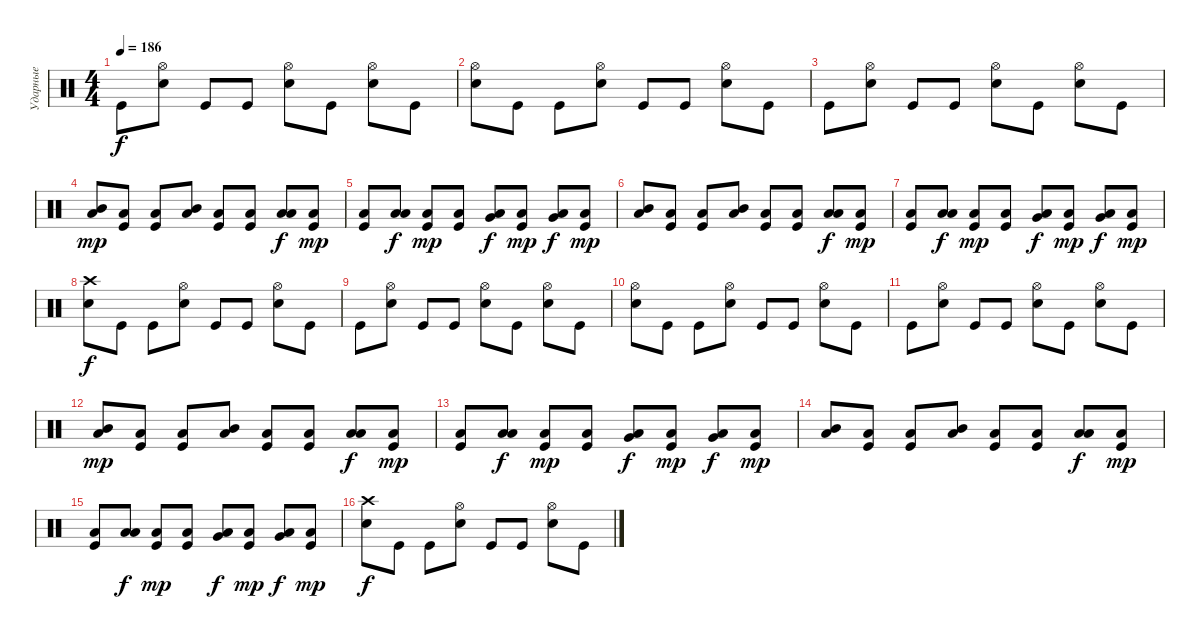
\track ("Ударные" "Ударные") {instrument percussion}
\staff {score}
\articulation defaults
\ts (4 4)
\tempo 186
\clef neutral
\ks aminor "Kick (hit)".8{dy f}
("Snare (hit) 2" "Hi-Hat (open)").8 "Kick (hit)".8 "Kick (hit)".8 ("Snare (hit) 2" "Hi-Hat (open)").8 "Kick (hit)".8 ("Snare (hit) 2" "Hi-Hat (open)").8 "Kick (hit)".8 |
("Snare (hit) 2" "Hi-Hat (open)").8 "Kick (hit)".8 "Kick (hit)".8 ("Snare (hit) 2" "Hi-Hat (open)").8 "Kick (hit)".8 "Kick (hit)".8 ("Snare (hit) 2" "Hi-Hat (open)").8 "Kick (hit)".8 |
"Kick (hit)".8 ("Snare (hit) 2" "Hi-Hat (open)").8 "Kick (hit)".8 "Kick (hit)".8 ("Snare (hit) 2" "Hi-Hat (open)").8 "Kick (hit)".8 ("Snare (hit) 2" "Hi-Hat (open)").8 "Kick (hit)".8 |
("Mid Tom (hit)" "Low Floor Tom (hit)").8{bd 240 dy mp} ("Kick (hit)" "Low Floor Tom (hit)").8 ("Kick (hit)" "Low Floor Tom (hit)").8 ("Mid Tom (hit)" "Low Floor Tom (hit)").8{bd 240} ("Kick (hit)" "Low Floor Tom (hit)").8 ("Kick (hit)" "Low Floor Tom (hit)").8 ("Low Tom (hit)" "Low Floor Tom (hit)").8{bd 240 dy f} ("Kick (hit)" "Low Floor Tom (hit)").8{dy mp} |
("Kick (hit)" "Low Floor Tom (hit)").8 ("Low Tom (hit)" "Low Floor Tom (hit)").8{bd 240 dy f} ("Kick (hit)" "Low Floor Tom (hit)").8{dy mp} ("Kick (hit)" "Low Floor Tom (hit)").8 ("Very Low Tom (hit)" "Low Floor Tom (hit)").8{bd 240 dy f} ("Kick (hit)" "Low Floor Tom (hit)").8{dy mp} ("Very Low Tom (hit)" "Low Floor Tom (hit)").8{bd 480 dy f} ("Kick (hit)" "Low Floor Tom (hit)").8{dy mp} |
("Mid Tom (hit)" "Low Floor Tom (hit)").8{bd 240} ("Kick (hit)" "Low Floor Tom (hit)").8 ("Kick (hit)" "Low Floor Tom (hit)").8 ("Mid Tom (hit)" "Low Floor Tom (hit)").8{bd 240} ("Kick (hit)" "Low Floor Tom (hit)").8 ("Kick (hit)" "Low Floor Tom (hit)").8 ("Low Tom (hit)" "Low Floor Tom (hit)").8{bd 240 dy f} ("Kick (hit)" "Low Floor Tom (hit)").8{dy mp} |
("Kick (hit)" "Low Floor Tom (hit)").8 ("Low Tom (hit)" "Low Floor Tom (hit)").8{bd 240 dy f} ("Kick (hit)" "Low Floor Tom (hit)").8{dy mp} ("Kick (hit)" "Low Floor Tom (hit)").8 ("Very Low Tom (hit)" "Low Floor Tom (hit)").8{bd 240 dy f} ("Kick (hit)" "Low Floor Tom (hit)").8{dy mp} ("Very Low Tom (hit)" "Low Floor Tom (hit)").8{bd 480 dy f} ("Kick (hit)" "Low Floor Tom (hit)").8{dy mp} |
("Snare (hit) 2" "Crash high (hit)").8{dy f} "Kick (hit)".8 "Kick (hit)".8 ("Snare (hit) 2" "Hi-Hat (open)").8 "Kick (hit)".8 "Kick (hit)".8 ("Snare (hit) 2" "Hi-Hat (open)").8 "Kick (hit)".8 |
"Kick (hit)".8 ("Snare (hit) 2" "Hi-Hat (open)").8 "Kick (hit)".8 "Kick (hit)".8 ("Snare (hit) 2" "Hi-Hat (open)").8 "Kick (hit)".8 ("Snare (hit) 2" "Hi-Hat (open)").8 "Kick (hit)".8 |
("Snare (hit) 2" "Hi-Hat (open)").8 "Kick (hit)".8 "Kick (hit)".8 ("Snare (hit) 2" "Hi-Hat (open)").8 "Kick (hit)".8 "Kick (hit)".8 ("Snare (hit) 2" "Hi-Hat (open)").8 "Kick (hit)".8 |
"Kick (hit)".8 ("Snare (hit) 2" "Hi-Hat (open)").8 "Kick (hit)".8 "Kick (hit)".8 ("Snare (hit) 2" "Hi-Hat (open)").8 "Kick (hit)".8 ("Snare (hit) 2" "Hi-Hat (open)").8 "Kick (hit)".8 |
("Mid Tom (hit)" "Low Floor Tom (hit)").8{bd 240 dy mp} ("Kick (hit)" "Low Floor Tom (hit)").8 ("Kick (hit)" "Low Floor Tom (hit)").8 ("Mid Tom (hit)" "Low Floor Tom (hit)").8{bd 240} ("Kick (hit)" "Low Floor Tom (hit)").8 ("Kick (hit)" "Low Floor Tom (hit)").8 ("Low Tom (hit)" "Low Floor Tom (hit)").8{bd 240 dy f} ("Kick (hit)" "Low Floor Tom (hit)").8{dy mp} |
("Kick (hit)" "Low Floor Tom (hit)").8 ("Low Tom (hit)" "Low Floor Tom (hit)").8{bd 240 dy f} ("Kick (hit)" "Low Floor Tom (hit)").8{dy mp} ("Kick (hit)" "Low Floor Tom (hit)").8 ("Very Low Tom (hit)" "Low Floor Tom (hit)").8{bd 240 dy f} ("Kick (hit)" "Low Floor Tom (hit)").8{dy mp} ("Very Low Tom (hit)" "Low Floor Tom (hit)").8{bd 480 dy f} ("Kick (hit)" "Low Floor Tom (hit)").8{dy mp} |
("Mid Tom (hit)" "Low Floor Tom (hit)").8{bd 240} ("Kick (hit)" "Low Floor Tom (hit)").8 ("Kick (hit)" "Low Floor Tom (hit)").8 ("Mid Tom (hit)" "Low Floor Tom (hit)").8{bd 240} ("Kick (hit)" "Low Floor Tom (hit)").8 ("Kick (hit)" "Low Floor Tom (hit)").8 ("Low Tom (hit)" "Low Floor Tom (hit)").8{bd 240 dy f} ("Kick (hit)" "Low Floor Tom (hit)").8{dy mp} |
("Kick (hit)" "Low Floor Tom (hit)").8 ("Low Tom (hit)" "Low Floor Tom (hit)").8{bd 240 dy f} ("Kick (hit)" "Low Floor Tom (hit)").8{dy mp} ("Kick (hit)" "Low Floor Tom (hit)").8 ("Very Low Tom (hit)" "Low Floor Tom (hit)").8{bd 240 dy f} ("Kick (hit)" "Low Floor Tom (hit)").8{dy mp} ("Very Low Tom (hit)" "Low Floor Tom (hit)").8{bd 480 dy f} ("Kick (hit)" "Low Floor Tom (hit)").8{dy mp} |
("Snare (hit) 2" "Crash high (hit)").8{dy f} "Kick (hit)".8 "Kick (hit)".8 ("Snare (hit) 2" "Hi-Hat (open)").8 "Kick (hit)".8 "Kick (hit)".8 ("Snare (hit) 2" "Hi-Hat (open)").8 "Kick (hit)".8
